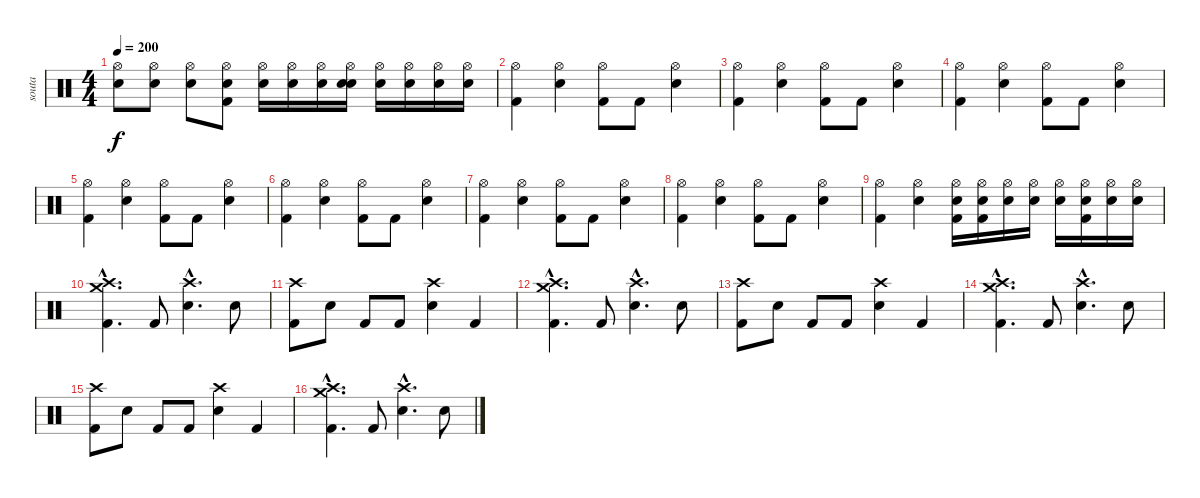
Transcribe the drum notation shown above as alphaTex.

\track ("souta" "souta") {instrument percussion}
\staff {score}
\articulation defaults
\ts (4 4)
\tempo 200
\clef neutral
\ks c
("Hi-Hat (open)" "Snare (hit) 2").8{dy f} ("Hi-Hat (open)" "Snare (hit) 2").8 ("Hi-Hat (open)" "Snare (hit) 2").8 ("Hi-Hat (open)" "Snare (hit) 2" "Kick (hit) 2").8 ("Hi-Hat (open)" "Snare (hit) 2").16 ("Hi-Hat (open)" "Snare (hit) 2").16 ("Hi-Hat (open)" "Snare (hit) 2").16 ("Hi-Hat (open)" "Snare (hit) 2" "Snare (hit) 2").16 ("Hi-Hat (open)" "Snare (hit) 2").16 ("Hi-Hat (open)" "Snare (hit) 2").16 ("Hi-Hat (open)" "Snare (hit) 2").16 ("Hi-Hat (open)" "Snare (hit) 2").16 |
("Hi-Hat (open)" "Kick (hit) 2").4 ("Hi-Hat (open)" "Snare (hit) 2").4 ("Hi-Hat (open)" "Kick (hit) 2").8 "Kick (hit) 2".8 ("Hi-Hat (open)" "Snare (hit) 2").4 |
("Hi-Hat (open)" "Kick (hit) 2").4 ("Hi-Hat (open)" "Snare (hit) 2").4 ("Hi-Hat (open)" "Kick (hit) 2").8 "Kick (hit) 2".8 ("Hi-Hat (open)" "Snare (hit) 2").4 |
("Hi-Hat (open)" "Kick (hit) 2").4 ("Hi-Hat (open)" "Snare (hit) 2").4 ("Hi-Hat (open)" "Kick (hit) 2").8 "Kick (hit) 2".8 ("Hi-Hat (open)" "Snare (hit) 2").4 |
("Hi-Hat (open)" "Kick (hit) 2").4 ("Hi-Hat (open)" "Snare (hit) 2").4 ("Hi-Hat (open)" "Kick (hit) 2").8 "Kick (hit) 2".8 ("Hi-Hat (open)" "Snare (hit) 2").4 |
("Hi-Hat (open)" "Kick (hit) 2").4 ("Hi-Hat (open)" "Snare (hit) 2").4 ("Hi-Hat (open)" "Kick (hit) 2").8 "Kick (hit) 2".8 ("Hi-Hat (open)" "Snare (hit) 2").4 |
("Hi-Hat (open)" "Kick (hit) 2").4 ("Hi-Hat (open)" "Snare (hit) 2").4 ("Hi-Hat (open)" "Kick (hit) 2").8 "Kick (hit) 2".8 ("Hi-Hat (open)" "Snare (hit) 2").4 |
("Hi-Hat (open)" "Kick (hit) 2").4 ("Hi-Hat (open)" "Snare (hit) 2").4 ("Hi-Hat (open)" "Kick (hit) 2").8 "Kick (hit) 2".8 ("Hi-Hat (open)" "Snare (hit) 2").4 |
("Hi-Hat (open)" "Kick (hit) 2").4 ("Hi-Hat (open)" "Snare (hit) 2").4 ("Hi-Hat (open)" "Snare (hit) 2" "Kick (hit) 2").16 ("Hi-Hat (open)" "Snare (hit) 2" "Kick (hit) 2").16 ("Hi-Hat (open)" "Snare (hit) 2").16 ("Hi-Hat (open)" "Snare (hit) 2").16 ("Hi-Hat (open)" "Snare (hit) 2").16 ("Hi-Hat (open)" "Snare (hit) 2" "Kick (hit) 2").16 ("Hi-Hat (open)" "Snare (hit) 2").16 ("Hi-Hat (open)" "Snare (hit) 2").16 |
("Crash high (hit)"{hac} "Kick (hit) 2"{hac} "Crash medium (hit)"{hac}).4{d} "Kick (hit) 2".8 ("Crash high (hit)"{hac} "Snare (hit) 2"{hac}).4{d} "Snare (hit) 2".8 |
("Crash high (hit)" "Kick (hit) 2").8 "Snare (hit) 2".8 "Kick (hit) 2".8 "Kick (hit) 2".8 ("Crash high (hit)" "Snare (hit) 2").4 "Kick (hit) 2".4 |
("Crash high (hit)"{hac} "Kick (hit) 2"{hac} "Crash medium (hit)"{hac}).4{d} "Kick (hit) 2".8 ("Crash high (hit)"{hac} "Snare (hit) 2"{hac}).4{d} "Snare (hit) 2".8 |
("Crash high (hit)" "Kick (hit) 2").8 "Snare (hit) 2".8 "Kick (hit) 2".8 "Kick (hit) 2".8 ("Crash high (hit)" "Snare (hit) 2").4 "Kick (hit) 2".4 |
("Crash high (hit)"{hac} "Kick (hit) 2"{hac} "Crash medium (hit)"{hac}).4{d} "Kick (hit) 2".8 ("Crash high (hit)"{hac} "Snare (hit) 2"{hac}).4{d} "Snare (hit) 2".8 |
("Crash high (hit)" "Kick (hit) 2").8 "Snare (hit) 2".8 "Kick (hit) 2".8 "Kick (hit) 2".8 ("Crash high (hit)" "Snare (hit) 2").4 "Kick (hit) 2".4 |
("Crash high (hit)"{hac} "Kick (hit) 2"{hac} "Crash medium (hit)"{hac}).4{d} "Kick (hit) 2".8 ("Crash high (hit)"{hac} "Snare (hit) 2"{hac}).4{d} "Snare (hit) 2".8
